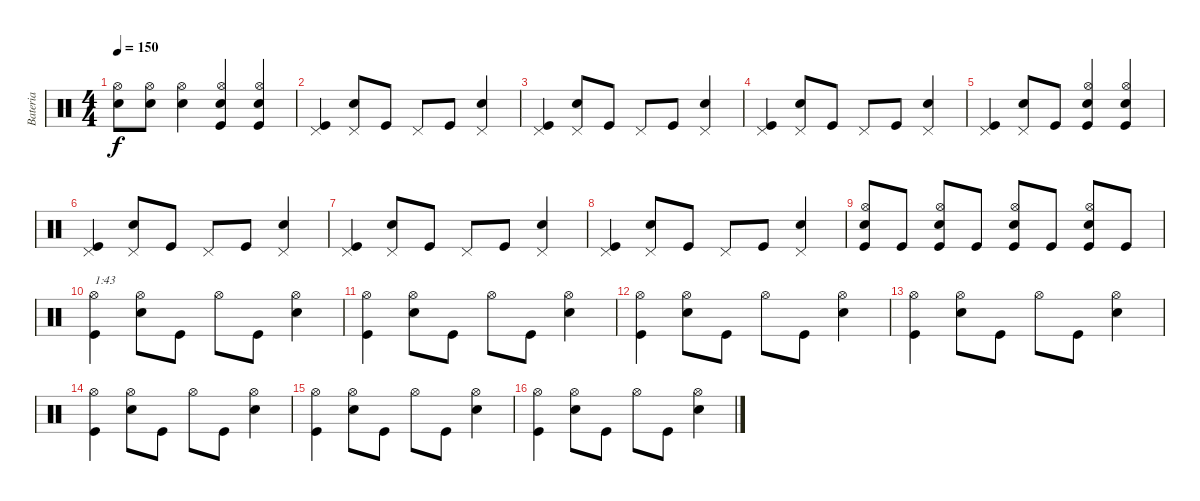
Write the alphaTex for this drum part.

\track ("Bateria" "Bateria") {instrument percussion}
\staff {score}
\articulation defaults
\ts (4 4)
\tempo 150
\clef neutral
\ks c
("Snare (hit) 2" "Hi-Hat (open)").8{dy f} ("Snare (hit) 2" "Hi-Hat (open)").8 ("Snare (hit) 2" "Hi-Hat (open)").4 ("Kick (hit)" "Snare (hit) 2" "Hi-Hat (open)").4 ("Kick (hit)" "Snare (hit) 2" "Hi-Hat (open)").4 |
("Kick (hit)" "Pedal Hi-Hat (hit)").4 ("Snare (hit) 2" "Pedal Hi-Hat (hit)").8 "Kick (hit)".8 "Pedal Hi-Hat (hit)".8 "Kick (hit)".8 ("Snare (hit) 2" "Pedal Hi-Hat (hit)").4 |
("Kick (hit)" "Pedal Hi-Hat (hit)").4 ("Snare (hit) 2" "Pedal Hi-Hat (hit)").8 "Kick (hit)".8 "Pedal Hi-Hat (hit)".8 "Kick (hit)".8 ("Snare (hit) 2" "Pedal Hi-Hat (hit)").4 |
("Kick (hit)" "Pedal Hi-Hat (hit)").4 ("Snare (hit) 2" "Pedal Hi-Hat (hit)").8 "Kick (hit)".8 "Pedal Hi-Hat (hit)".8 "Kick (hit)".8 ("Snare (hit) 2" "Pedal Hi-Hat (hit)").4 |
("Kick (hit)" "Pedal Hi-Hat (hit)").4 ("Snare (hit) 2" "Pedal Hi-Hat (hit)").8 "Kick (hit)".8 ("Kick (hit)" "Snare (hit) 2" "Hi-Hat (open)").4 ("Kick (hit)" "Snare (hit) 2" "Hi-Hat (open)").4 |
("Kick (hit)" "Pedal Hi-Hat (hit)").4 ("Snare (hit) 2" "Pedal Hi-Hat (hit)").8 "Kick (hit)".8 "Pedal Hi-Hat (hit)".8 "Kick (hit)".8 ("Snare (hit) 2" "Pedal Hi-Hat (hit)").4 |
("Kick (hit)" "Pedal Hi-Hat (hit)").4 ("Snare (hit) 2" "Pedal Hi-Hat (hit)").8 "Kick (hit)".8 "Pedal Hi-Hat (hit)".8 "Kick (hit)".8 ("Snare (hit) 2" "Pedal Hi-Hat (hit)").4 |
("Kick (hit)" "Pedal Hi-Hat (hit)").4 ("Snare (hit) 2" "Pedal Hi-Hat (hit)").8 "Kick (hit)".8 "Pedal Hi-Hat (hit)".8 "Kick (hit)".8 ("Snare (hit) 2" "Pedal Hi-Hat (hit)").4 |
("Kick (hit)" "Snare (hit) 2" "Hi-Hat (open)").8 "Kick (hit)".8 ("Kick (hit)" "Snare (hit) 2" "Hi-Hat (open)").8 "Kick (hit)".8 ("Kick (hit)" "Snare (hit) 2" "Hi-Hat (open)").8 "Kick (hit)".8 ("Kick (hit)" "Snare (hit) 2" "Hi-Hat (open)").8 "Kick (hit)".8 |
("Kick (hit)" "Hi-Hat (open)").4{txt "1:43"} ("Snare (hit) 2" "Hi-Hat (open)").8 "Kick (hit)".8 "Hi-Hat (open)".8 "Kick (hit)".8 ("Snare (hit) 2" "Hi-Hat (open)").4 |
("Kick (hit)" "Hi-Hat (open)").4 ("Snare (hit) 2" "Hi-Hat (open)").8 "Kick (hit)".8 "Hi-Hat (open)".8 "Kick (hit)".8 ("Snare (hit) 2" "Hi-Hat (open)").4 |
("Kick (hit)" "Hi-Hat (open)").4 ("Snare (hit) 2" "Hi-Hat (open)").8 "Kick (hit)".8 "Hi-Hat (open)".8 "Kick (hit)".8 ("Snare (hit) 2" "Hi-Hat (open)").4 |
("Kick (hit)" "Hi-Hat (open)").4 ("Snare (hit) 2" "Hi-Hat (open)").8 "Kick (hit)".8 "Hi-Hat (open)".8 "Kick (hit)".8 ("Snare (hit) 2" "Hi-Hat (open)").4 |
("Kick (hit)" "Hi-Hat (open)").4 ("Snare (hit) 2" "Hi-Hat (open)").8 "Kick (hit)".8 "Hi-Hat (open)".8 "Kick (hit)".8 ("Snare (hit) 2" "Hi-Hat (open)").4 |
("Kick (hit)" "Hi-Hat (open)").4 ("Snare (hit) 2" "Hi-Hat (open)").8 "Kick (hit)".8 "Hi-Hat (open)".8 "Kick (hit)".8 ("Snare (hit) 2" "Hi-Hat (open)").4 |
("Kick (hit)" "Hi-Hat (open)").4 ("Snare (hit) 2" "Hi-Hat (open)").8 "Kick (hit)".8 "Hi-Hat (open)".8 "Kick (hit)".8 ("Snare (hit) 2" "Hi-Hat (open)").4
